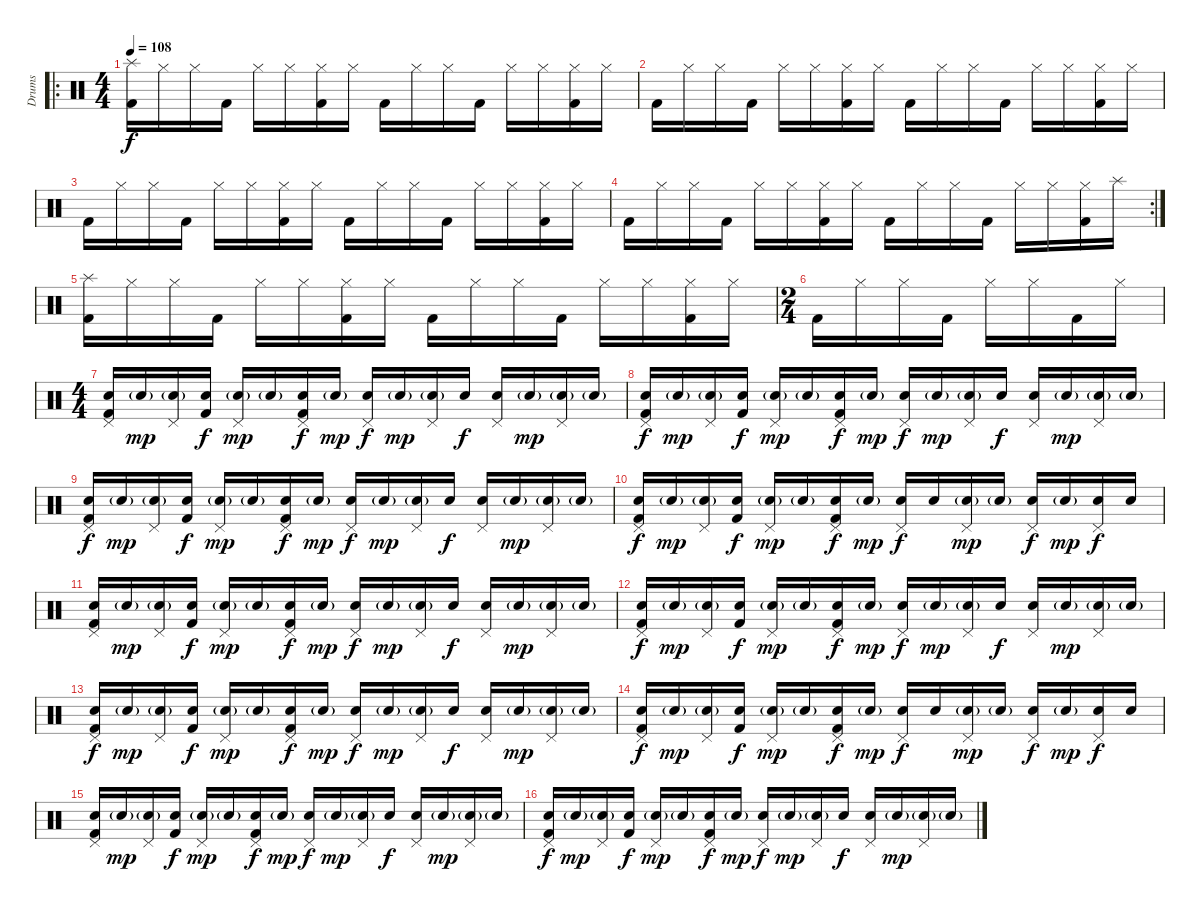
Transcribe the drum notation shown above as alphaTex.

\track ("Drums" "Drums") {instrument percussion}
\staff {score}
\articulation defaults
\ro
\ts (4 4)
\tempo 108
\clef neutral
\ks c
("Splash (hit)" "Kick (hit) 2").16{dy f} "Hi-Hat (closed)".16 "Hi-Hat (closed)".16 "Kick (hit) 2".16 "Hi-Hat (closed)".16 "Hi-Hat (closed)".16 ("Hi-Hat (closed)" "Kick (hit) 2").16 "Hi-Hat (closed)".16 "Kick (hit) 2".16 "Hi-Hat (closed)".16 "Hi-Hat (closed)".16 "Kick (hit) 2".16 "Hi-Hat (closed)".16 "Hi-Hat (closed)".16 ("Hi-Hat (closed)" "Kick (hit) 2").16 "Hi-Hat (closed)".16 |
"Kick (hit) 2".16 "Hi-Hat (closed)".16 "Hi-Hat (closed)".16 "Kick (hit) 2".16 "Hi-Hat (closed)".16 "Hi-Hat (closed)".16 ("Hi-Hat (closed)" "Kick (hit) 2").16 "Hi-Hat (closed)".16 "Kick (hit) 2".16 "Hi-Hat (closed)".16 "Hi-Hat (closed)".16 "Kick (hit) 2".16 "Hi-Hat (closed)".16 "Hi-Hat (closed)".16 ("Hi-Hat (closed)" "Kick (hit) 2").16 "Hi-Hat (closed)".16 |
"Kick (hit) 2".16 "Hi-Hat (closed)".16 "Hi-Hat (closed)".16 "Kick (hit) 2".16 "Hi-Hat (closed)".16 "Hi-Hat (closed)".16 ("Hi-Hat (closed)" "Kick (hit) 2").16 "Hi-Hat (closed)".16 "Kick (hit) 2".16 "Hi-Hat (closed)".16 "Hi-Hat (closed)".16 "Kick (hit) 2".16 "Hi-Hat (closed)".16 "Hi-Hat (closed)".16 ("Hi-Hat (closed)" "Kick (hit) 2").16 "Hi-Hat (closed)".16 |
\rc 2 "Kick (hit) 2".16 "Hi-Hat (closed)".16 "Hi-Hat (closed)".16 "Kick (hit) 2".16 "Hi-Hat (closed)".16 "Hi-Hat (closed)".16
("Hi-Hat (closed)" "Kick (hit) 2").16 "Hi-Hat (closed)".16 "Kick (hit) 2".16 "Hi-Hat (closed)".16 "Hi-Hat (closed)".16 "Kick (hit) 2".16 "Hi-Hat (closed)".16 "Hi-Hat (closed)".16 ("Hi-Hat (closed)" "Kick (hit) 2").16 "Splash (hit)".16 |
("Splash (hit)" "Kick (hit) 2").16 "Hi-Hat (closed)".16 "Hi-Hat (closed)".16 "Kick (hit) 2".16 "Hi-Hat (closed)".16 "Hi-Hat (closed)".16 ("Hi-Hat (closed)" "Kick (hit) 2").16 "Hi-Hat (closed)".16 "Kick (hit) 2".16 "Hi-Hat (closed)".16 "Hi-Hat (closed)".16 "Kick (hit) 2".16 "Hi-Hat (closed)".16 "Hi-Hat (closed)".16 ("Hi-Hat (closed)" "Kick (hit) 2").16 "Hi-Hat (closed)".16 |
\ts (2 4)
"Kick (hit) 2".16 "Hi-Hat (closed)".16 "Hi-Hat (closed)".16 "Kick (hit) 2".16 "Hi-Hat (closed)".16 "Hi-Hat (closed)".16 "Kick (hit) 2".16 "Hi-Hat (closed)".16 |
\ts (4 4)
("Snare (hit) 2" "Kick (hit) 2" "Pedal Hi-Hat (hit)").16{volume 13} "Snare (hit) 2"{g}.16{dy mp volume 9} ("Snare (hit) 2"{g} "Pedal Hi-Hat (hit)").16 ("Snare (hit) 2" "Kick (hit) 2").16{dy f} ("Snare (hit) 2"{g} "Pedal Hi-Hat (hit)").16{dy mp} "Snare (hit) 2"{g}.16 ("Snare (hit) 2" "Kick (hit) 2" "Pedal Hi-Hat (hit)").16{dy f} "Snare (hit) 2"{g}.16{dy mp} ("Snare (hit) 2" "Pedal Hi-Hat (hit)").16{dy f} "Snare (hit) 2"{g}.16{dy mp} ("Snare (hit) 2"{g} "Pedal Hi-Hat (hit)").16 "Snare (hit) 2".16{dy f volume 13} ("Snare (hit) 2" "Pedal Hi-Hat (hit)").16 "Snare (hit) 2"{g}.16{dy mp volume 8} ("Snare (hit) 2"{g} "Pedal Hi-Hat (hit)").16 "Snare (hit) 2"{g}.16 |
("Snare (hit) 2" "Kick (hit) 2" "Pedal Hi-Hat (hit)").16{dy f volume 13} "Snare (hit) 2"{g}.16{dy mp volume 9} ("Snare (hit) 2"{g} "Pedal Hi-Hat (hit)").16 ("Snare (hit) 2" "Kick (hit) 2").16{dy f} ("Snare (hit) 2"{g} "Pedal Hi-Hat (hit)").16{dy mp} "Snare (hit) 2"{g}.16 ("Snare (hit) 2" "Kick (hit) 2" "Pedal Hi-Hat (hit)").16{dy f} "Snare (hit) 2"{g}.16{dy mp} ("Snare (hit) 2" "Pedal Hi-Hat (hit)").16{dy f} "Snare (hit) 2"{g}.16{dy mp} ("Snare (hit) 2"{g} "Pedal Hi-Hat (hit)").16 "Snare (hit) 2".16{dy f volume 13} ("Snare (hit) 2" "Pedal Hi-Hat (hit)").16 "Snare (hit) 2"{g}.16{dy mp volume 8} ("Snare (hit) 2"{g} "Pedal Hi-Hat (hit)").16 "Snare (hit) 2"{g}.16 |
("Snare (hit) 2" "Kick (hit) 2" "Pedal Hi-Hat (hit)").16{dy f volume 13} "Snare (hit) 2"{g}.16{dy mp volume 9} ("Snare (hit) 2"{g} "Pedal Hi-Hat (hit)").16 ("Snare (hit) 2" "Kick (hit) 2").16{dy f} ("Snare (hit) 2"{g} "Pedal Hi-Hat (hit)").16{dy mp} "Snare (hit) 2"{g}.16 ("Snare (hit) 2" "Kick (hit) 2" "Pedal Hi-Hat (hit)").16{dy f} "Snare (hit) 2"{g}.16{dy mp} ("Snare (hit) 2" "Pedal Hi-Hat (hit)").16{dy f} "Snare (hit) 2"{g}.16{dy mp} ("Snare (hit) 2"{g} "Pedal Hi-Hat (hit)").16 "Snare (hit) 2".16{dy f volume 13} ("Snare (hit) 2" "Pedal Hi-Hat (hit)").16 "Snare (hit) 2"{g}.16{dy mp volume 8} ("Snare (hit) 2"{g} "Pedal Hi-Hat (hit)").16 "Snare (hit) 2"{g}.16 |
("Snare (hit) 2" "Kick (hit) 2" "Pedal Hi-Hat (hit)").16{dy f volume 13} "Snare (hit) 2"{g}.16{dy mp volume 9} ("Snare (hit) 2"{g} "Pedal Hi-Hat (hit)").16 ("Snare (hit) 2" "Kick (hit) 2").16{dy f} ("Snare (hit) 2"{g} "Pedal Hi-Hat (hit)").16{dy mp} "Snare (hit) 2"{g}.16 ("Snare (hit) 2" "Kick (hit) 2" "Pedal Hi-Hat (hit)").16{dy f} "Snare (hit) 2"{g}.16{dy mp} ("Snare (hit) 2" "Pedal Hi-Hat (hit)").16{dy f volume 13} "Snare (hit) 2".16 ("Snare (hit) 2"{g} "Pedal Hi-Hat (hit)").16{dy mp} "Snare (hit) 2"{g}.16 ("Snare (hit) 2" "Pedal Hi-Hat (hit)").16{dy f} "Snare (hit) 2"{g}.16{dy mp volume 8} ("Snare (hit) 2" "Pedal Hi-Hat (hit)").16{dy f volume 16} "Snare (hit) 2".16 |
("Snare (hit) 2" "Kick (hit) 2" "Pedal Hi-Hat (hit)").16{volume 13} "Snare (hit) 2"{g}.16{dy mp volume 9} ("Snare (hit) 2"{g} "Pedal Hi-Hat (hit)").16 ("Snare (hit) 2" "Kick (hit) 2").16{dy f} ("Snare (hit) 2"{g} "Pedal Hi-Hat (hit)").16{dy mp} "Snare (hit) 2"{g}.16 ("Snare (hit) 2" "Kick (hit) 2" "Pedal Hi-Hat (hit)").16{dy f} "Snare (hit) 2"{g}.16{dy mp} ("Snare (hit) 2" "Pedal Hi-Hat (hit)").16{dy f} "Snare (hit) 2"{g}.16{dy mp} ("Snare (hit) 2"{g} "Pedal Hi-Hat (hit)").16 "Snare (hit) 2".16{dy f volume 13} ("Snare (hit) 2" "Pedal Hi-Hat (hit)").16 "Snare (hit) 2"{g}.16{dy mp volume 8} ("Snare (hit) 2"{g} "Pedal Hi-Hat (hit)").16 "Snare (hit) 2"{g}.16 |
("Snare (hit) 2" "Kick (hit) 2" "Pedal Hi-Hat (hit)").16{dy f volume 13} "Snare (hit) 2"{g}.16{dy mp volume 9} ("Snare (hit) 2"{g} "Pedal Hi-Hat (hit)").16 ("Snare (hit) 2" "Kick (hit) 2").16{dy f} ("Snare (hit) 2"{g} "Pedal Hi-Hat (hit)").16{dy mp} "Snare (hit) 2"{g}.16 ("Snare (hit) 2" "Kick (hit) 2" "Pedal Hi-Hat (hit)").16{dy f} "Snare (hit) 2"{g}.16{dy mp} ("Snare (hit) 2" "Pedal Hi-Hat (hit)").16{dy f} "Snare (hit) 2"{g}.16{dy mp} ("Snare (hit) 2"{g} "Pedal Hi-Hat (hit)").16 "Snare (hit) 2".16{dy f volume 13} ("Snare (hit) 2" "Pedal Hi-Hat (hit)").16 "Snare (hit) 2"{g}.16{dy mp volume 8} ("Snare (hit) 2"{g} "Pedal Hi-Hat (hit)").16 "Snare (hit) 2"{g}.16 |
("Snare (hit) 2" "Kick (hit) 2" "Pedal Hi-Hat (hit)").16{dy f volume 13} "Snare (hit) 2"{g}.16{dy mp volume 9} ("Snare (hit) 2"{g} "Pedal Hi-Hat (hit)").16 ("Snare (hit) 2" "Kick (hit) 2").16{dy f} ("Snare (hit) 2"{g} "Pedal Hi-Hat (hit)").16{dy mp} "Snare (hit) 2"{g}.16 ("Snare (hit) 2" "Kick (hit) 2" "Pedal Hi-Hat (hit)").16{dy f} "Snare (hit) 2"{g}.16{dy mp} ("Snare (hit) 2" "Pedal Hi-Hat (hit)").16{dy f} "Snare (hit) 2"{g}.16{dy mp} ("Snare (hit) 2"{g} "Pedal Hi-Hat (hit)").16 "Snare (hit) 2".16{dy f volume 13} ("Snare (hit) 2" "Pedal Hi-Hat (hit)").16 "Snare (hit) 2"{g}.16{dy mp volume 8} ("Snare (hit) 2"{g} "Pedal Hi-Hat (hit)").16 "Snare (hit) 2"{g}.16 |
("Snare (hit) 2" "Kick (hit) 2" "Pedal Hi-Hat (hit)").16{dy f volume 13} "Snare (hit) 2"{g}.16{dy mp volume 9} ("Snare (hit) 2"{g} "Pedal Hi-Hat (hit)").16 ("Snare (hit) 2" "Kick (hit) 2").16{dy f} ("Snare (hit) 2"{g} "Pedal Hi-Hat (hit)").16{dy mp} "Snare (hit) 2"{g}.16 ("Snare (hit) 2" "Kick (hit) 2" "Pedal Hi-Hat (hit)").16{dy f} "Snare (hit) 2"{g}.16{dy mp} ("Snare (hit) 2" "Pedal Hi-Hat (hit)").16{dy f volume 13} "Snare (hit) 2".16 ("Snare (hit) 2"{g} "Pedal Hi-Hat (hit)").16{dy mp} "Snare (hit) 2"{g}.16 ("Snare (hit) 2" "Pedal Hi-Hat (hit)").16{dy f} "Snare (hit) 2"{g}.16{dy mp volume 8} ("Snare (hit) 2" "Pedal Hi-Hat (hit)").16{dy f volume 16} "Snare (hit) 2".16{volume 16} |
("Snare (hit) 2" "Kick (hit) 2" "Pedal Hi-Hat (hit)").16{volume 13} "Snare (hit) 2"{g}.16{dy mp volume 9} ("Snare (hit) 2"{g} "Pedal Hi-Hat (hit)").16 ("Snare (hit) 2" "Kick (hit) 2").16{dy f} ("Snare (hit) 2"{g} "Pedal Hi-Hat (hit)").16{dy mp} "Snare (hit) 2"{g}.16 ("Snare (hit) 2" "Kick (hit) 2" "Pedal Hi-Hat (hit)").16{dy f} "Snare (hit) 2"{g}.16{dy mp} ("Snare (hit) 2" "Pedal Hi-Hat (hit)").16{dy f} "Snare (hit) 2"{g}.16{dy mp} ("Snare (hit) 2"{g} "Pedal Hi-Hat (hit)").16 "Snare (hit) 2".16{dy f volume 13} ("Snare (hit) 2" "Pedal Hi-Hat (hit)").16 "Snare (hit) 2"{g}.16{dy mp volume 8} ("Snare (hit) 2"{g} "Pedal Hi-Hat (hit)").16 "Snare (hit) 2"{g}.16 |
("Snare (hit) 2" "Kick (hit) 2" "Pedal Hi-Hat (hit)").16{dy f volume 13} "Snare (hit) 2"{g}.16{dy mp volume 9} ("Snare (hit) 2"{g} "Pedal Hi-Hat (hit)").16 ("Snare (hit) 2" "Kick (hit) 2").16{dy f} ("Snare (hit) 2"{g} "Pedal Hi-Hat (hit)").16{dy mp} "Snare (hit) 2"{g}.16 ("Snare (hit) 2" "Kick (hit) 2" "Pedal Hi-Hat (hit)").16{dy f} "Snare (hit) 2"{g}.16{dy mp} ("Snare (hit) 2" "Pedal Hi-Hat (hit)").16{dy f} "Snare (hit) 2"{g}.16{dy mp} ("Snare (hit) 2"{g} "Pedal Hi-Hat (hit)").16 "Snare (hit) 2".16{dy f volume 13} ("Snare (hit) 2" "Pedal Hi-Hat (hit)").16 "Snare (hit) 2"{g}.16{dy mp volume 8} ("Snare (hit) 2"{g} "Pedal Hi-Hat (hit)").16 "Snare (hit) 2"{g}.16
